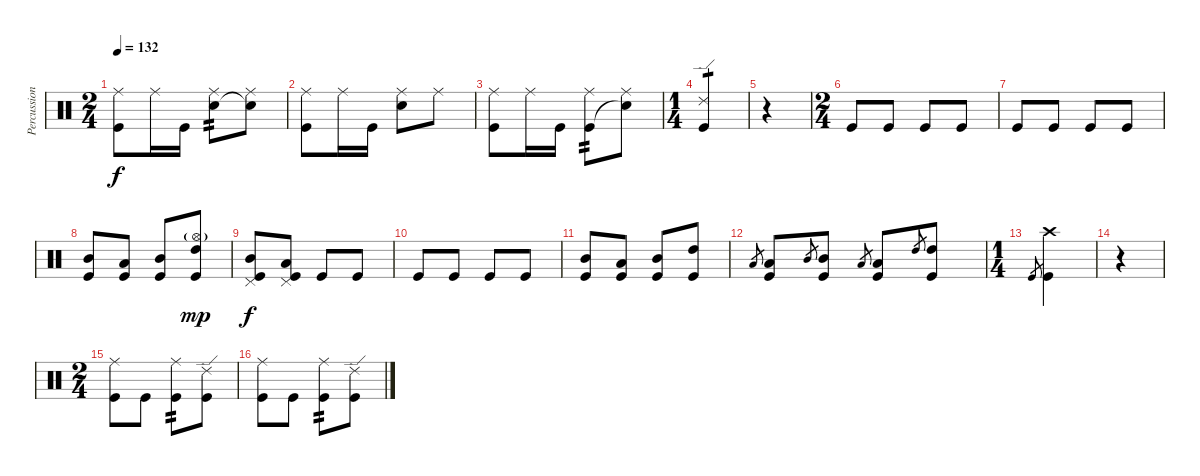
\track ("Percussion" "Percussion") {instrument percussion}
\staff {score}
\articulation defaults
\ts (2 4)
\tempo 132
\clef neutral
\ks c
("Ride (middle)" "Kick (hit)").8{dy f} "Ride (middle)".16 "Kick (hit)".16 ("Ride (middle)" "Electric Snare (hit)").8{tp 2} ("Ride (middle)" "Snare (hit)"{t}).8 |
("Ride (middle)" "Kick (hit)").8 "Ride (middle)".16 "Kick (hit)".16 ("Ride (middle)" "Electric Snare (hit)").8 "Ride (middle)".8 |
("Ride (middle)" "Kick (hit)").8 "Ride (middle)".16 "Kick (hit)".16 ("Ride (middle)" "Kick (hit)").8{tp 2} ("Ride (middle)" "Snare (hit)"{t}).8 |
\ts (1 4)
("Ride (edge) 2" "Kick (hit)").4{tp 1} |
r.4 |
\ts (2 4)
"Kick (hit)".8 "Kick (hit)".8 "Kick (hit)".8 "Kick (hit)".8 |
"Kick (hit)".8 "Kick (hit)".8 "Kick (hit)".8 "Kick (hit)".8 |
("Kick (hit)" "Mid Tom (hit)").8 ("Kick (hit)" "Low Tom (hit)").8 ("Kick (hit)" "Mid Tom (hit)").8 ("Hi-Hat (open)"{g} "Kick (hit)" "High Tom (hit)").8{dy mp} |
("Pedal Hi-Hat (hit)" "Kick (hit)" "Mid Tom (hit)").8{dy f} ("Pedal Hi-Hat (hit)" "Kick (hit)" "Low Tom (hit)").8 "Kick (hit)".8 "Kick (hit)".8 |
"Kick (hit)".8 "Kick (hit)".8 "Kick (hit)".8 "Kick (hit)".8 |
("Kick (hit)" "Mid Tom (hit)").8 ("Kick (hit)" "Low Tom (hit)").8 ("Kick (hit)" "Mid Tom (hit)").8 ("Kick (hit)" "High Tom (hit)").8 |
"Low Tom (hit)".8{gr} ("Kick (hit)" "Low Tom (hit)").8 "Mid Tom (hit)".8{gr} ("Kick (hit)" "Mid Tom (hit)").8 "Low Tom (hit)".8{gr} ("Kick (hit)" "Low Tom (hit)").8 "High Tom (hit)".8{gr} ("Kick (hit)" "High Tom (hit)").8 |
\ts (1 4)
"Kick (hit)".8{gr} ("Crash high (hit)" "Kick (hit)").4 |
r.4 |
\ts (2 4)
("Ride (middle)" "Kick (hit)").8 "Kick (hit)".8 ("Ride (middle)" "Kick (hit)").8{tp 2} ("Ride (edge) 2" "Kick (hit)").8 |
("Ride (middle)" "Kick (hit)").8 "Kick (hit)".8 ("Ride (middle)" "Kick (hit)").8{tp 2} ("Ride (edge) 2" "Kick (hit)").8
